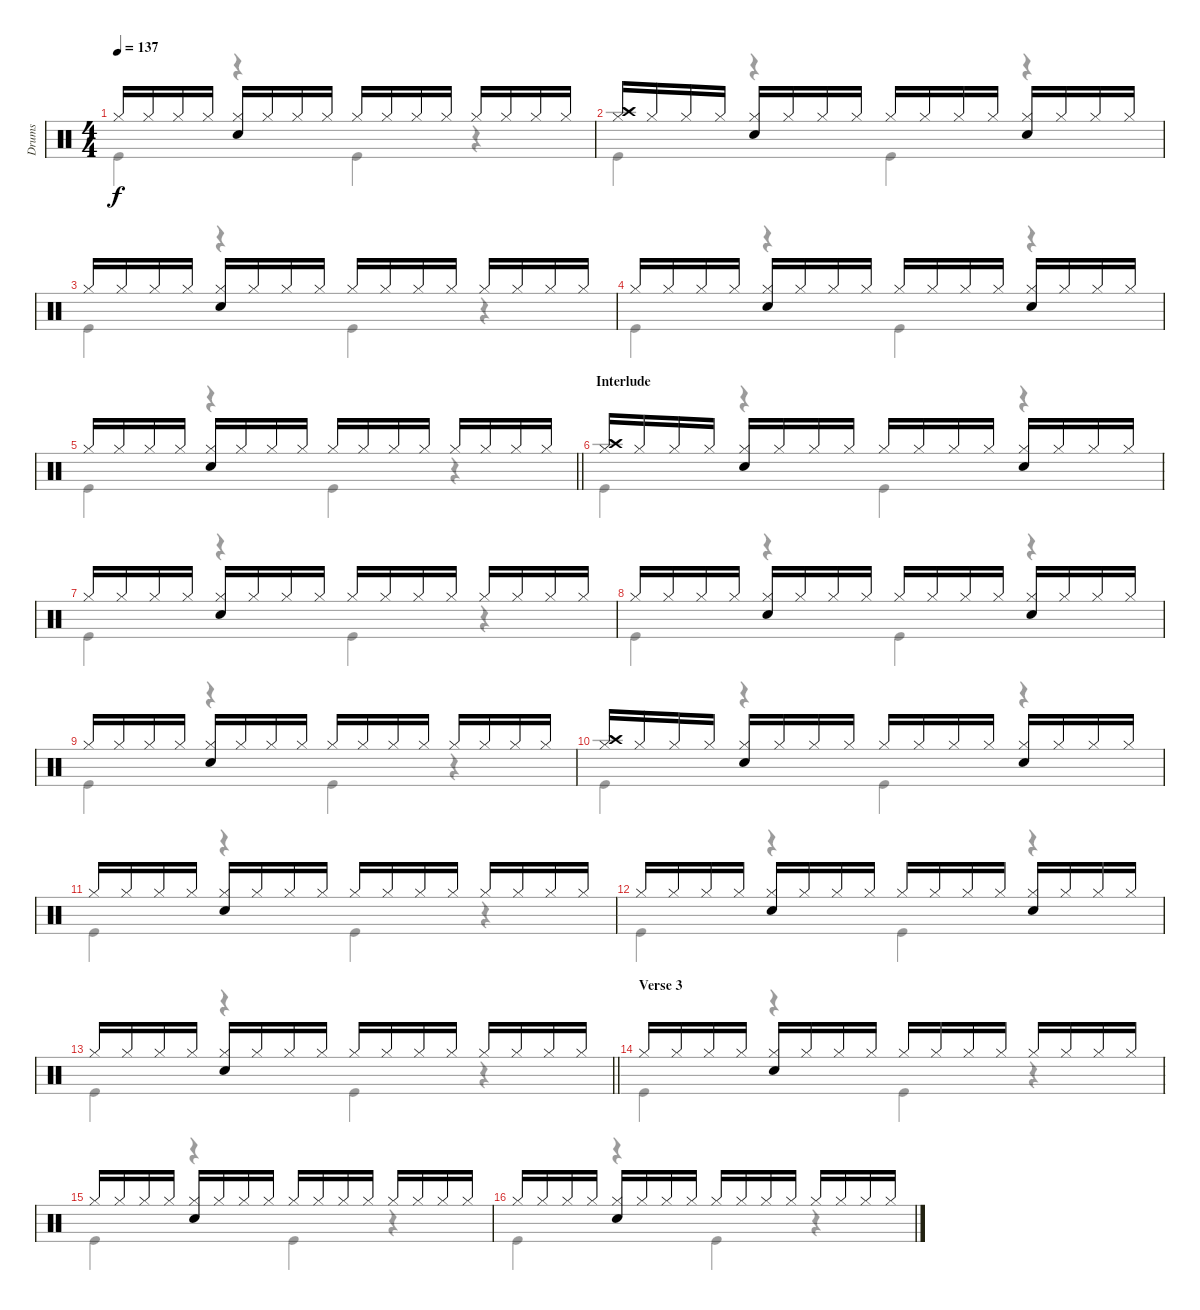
\track ("Drums" "Drums") {instrument percussion}
\staff {score}
\articulation defaults
\voice
\ts (4 4)
\tempo 137
\clef neutral
\ks c "Hi-Hat (closed)".16{dy f} "Hi-Hat (closed)".16 "Hi-Hat (closed)".16 "Hi-Hat (closed)".16
("Hi-Hat (closed)" "Snare (hit) 2").16 "Hi-Hat (closed)".16 "Hi-Hat (closed)".16 "Hi-Hat (closed)".16 "Hi-Hat (closed)".16 "Hi-Hat (closed)".16 "Hi-Hat (closed)".16 "Hi-Hat (closed)".16 "Hi-Hat (closed)".16 "Hi-Hat (closed)".16 "Hi-Hat (closed)".16 "Hi-Hat (closed)".16 |
("Hi-Hat (closed)" "Crash high (hit)").16 "Hi-Hat (closed)".16 "Hi-Hat (closed)".16 "Hi-Hat (closed)".16 ("Hi-Hat (closed)" "Snare (hit) 2").16 "Hi-Hat (closed)".16 "Hi-Hat (closed)".16 "Hi-Hat (closed)".16 "Hi-Hat (closed)".16 "Hi-Hat (closed)".16 "Hi-Hat (closed)".16 "Hi-Hat (closed)".16 ("Hi-Hat (closed)" "Hand Clap (hit)").16 "Hi-Hat (closed)".16 "Hi-Hat (closed)".16 "Hi-Hat (closed)".16 |
"Hi-Hat (closed)".16 "Hi-Hat (closed)".16 "Hi-Hat (closed)".16 "Hi-Hat (closed)".16 ("Hi-Hat (closed)" "Snare (hit) 2").16 "Hi-Hat (closed)".16 "Hi-Hat (closed)".16 "Hi-Hat (closed)".16 "Hi-Hat (closed)".16 "Hi-Hat (closed)".16 "Hi-Hat (closed)".16 "Hi-Hat (closed)".16 "Hi-Hat (closed)".16 "Hi-Hat (closed)".16 "Hi-Hat (closed)".16 "Hi-Hat (closed)".16 |
"Hi-Hat (closed)".16 "Hi-Hat (closed)".16 "Hi-Hat (closed)".16 "Hi-Hat (closed)".16 ("Hi-Hat (closed)" "Snare (hit) 2").16 "Hi-Hat (closed)".16 "Hi-Hat (closed)".16 "Hi-Hat (closed)".16 "Hi-Hat (closed)".16 "Hi-Hat (closed)".16 "Hi-Hat (closed)".16 "Hi-Hat (closed)".16 ("Hi-Hat (closed)" "Hand Clap (hit)").16 "Hi-Hat (closed)".16 "Hi-Hat (closed)".16 "Hi-Hat (closed)".16 |
\barLineRight lightlight "Hi-Hat (closed)".16 "Hi-Hat (closed)".16 "Hi-Hat (closed)".16 "Hi-Hat (closed)".16
("Hi-Hat (closed)" "Snare (hit) 2").16 "Hi-Hat (closed)".16 "Hi-Hat (closed)".16 "Hi-Hat (closed)".16 "Hi-Hat (closed)".16 "Hi-Hat (closed)".16 "Hi-Hat (closed)".16 "Hi-Hat (closed)".16 "Hi-Hat (closed)".16 "Hi-Hat (closed)".16 "Hi-Hat (closed)".16 "Hi-Hat (closed)".16 |
\section ("" "Interlude")
("Hi-Hat (closed)" "Crash high (hit)").16 "Hi-Hat (closed)".16 "Hi-Hat (closed)".16 "Hi-Hat (closed)".16 ("Hi-Hat (closed)" "Snare (hit) 2").16 "Hi-Hat (closed)".16 "Hi-Hat (closed)".16 "Hi-Hat (closed)".16 "Hi-Hat (closed)".16 "Hi-Hat (closed)".16 "Hi-Hat (closed)".16 "Hi-Hat (closed)".16 ("Hi-Hat (closed)" "Hand Clap (hit)").16 "Hi-Hat (closed)".16 "Hi-Hat (closed)".16 "Hi-Hat (closed)".16 |
"Hi-Hat (closed)".16 "Hi-Hat (closed)".16 "Hi-Hat (closed)".16 "Hi-Hat (closed)".16 ("Hi-Hat (closed)" "Snare (hit) 2").16 "Hi-Hat (closed)".16 "Hi-Hat (closed)".16 "Hi-Hat (closed)".16 "Hi-Hat (closed)".16 "Hi-Hat (closed)".16 "Hi-Hat (closed)".16 "Hi-Hat (closed)".16 "Hi-Hat (closed)".16 "Hi-Hat (closed)".16 "Hi-Hat (closed)".16 "Hi-Hat (closed)".16 |
"Hi-Hat (closed)".16 "Hi-Hat (closed)".16 "Hi-Hat (closed)".16 "Hi-Hat (closed)".16 ("Hi-Hat (closed)" "Snare (hit) 2").16 "Hi-Hat (closed)".16 "Hi-Hat (closed)".16 "Hi-Hat (closed)".16 "Hi-Hat (closed)".16 "Hi-Hat (closed)".16 "Hi-Hat (closed)".16 "Hi-Hat (closed)".16 ("Hi-Hat (closed)" "Hand Clap (hit)").16 "Hi-Hat (closed)".16 "Hi-Hat (closed)".16 "Hi-Hat (closed)".16 |
"Hi-Hat (closed)".16 "Hi-Hat (closed)".16 "Hi-Hat (closed)".16 "Hi-Hat (closed)".16 ("Hi-Hat (closed)" "Snare (hit) 2").16 "Hi-Hat (closed)".16 "Hi-Hat (closed)".16 "Hi-Hat (closed)".16 "Hi-Hat (closed)".16 "Hi-Hat (closed)".16 "Hi-Hat (closed)".16 "Hi-Hat (closed)".16 "Hi-Hat (closed)".16 "Hi-Hat (closed)".16 "Hi-Hat (closed)".16 "Hi-Hat (closed)".16 |
("Hi-Hat (closed)" "Crash high (hit)").16 "Hi-Hat (closed)".16 "Hi-Hat (closed)".16 "Hi-Hat (closed)".16 ("Hi-Hat (closed)" "Snare (hit) 2").16 "Hi-Hat (closed)".16 "Hi-Hat (closed)".16 "Hi-Hat (closed)".16 "Hi-Hat (closed)".16 "Hi-Hat (closed)".16 "Hi-Hat (closed)".16 "Hi-Hat (closed)".16 ("Hi-Hat (closed)" "Hand Clap (hit)").16 "Hi-Hat (closed)".16 "Hi-Hat (closed)".16 "Hi-Hat (closed)".16 |
"Hi-Hat (closed)".16 "Hi-Hat (closed)".16 "Hi-Hat (closed)".16 "Hi-Hat (closed)".16 ("Hi-Hat (closed)" "Snare (hit) 2").16 "Hi-Hat (closed)".16 "Hi-Hat (closed)".16 "Hi-Hat (closed)".16 "Hi-Hat (closed)".16 "Hi-Hat (closed)".16 "Hi-Hat (closed)".16 "Hi-Hat (closed)".16 "Hi-Hat (closed)".16 "Hi-Hat (closed)".16 "Hi-Hat (closed)".16 "Hi-Hat (closed)".16 |
"Hi-Hat (closed)".16 "Hi-Hat (closed)".16 "Hi-Hat (closed)".16 "Hi-Hat (closed)".16 ("Hi-Hat (closed)" "Snare (hit) 2").16 "Hi-Hat (closed)".16 "Hi-Hat (closed)".16 "Hi-Hat (closed)".16 "Hi-Hat (closed)".16 "Hi-Hat (closed)".16 "Hi-Hat (closed)".16 "Hi-Hat (closed)".16 ("Hi-Hat (closed)" "Hand Clap (hit)").16 "Hi-Hat (closed)".16 "Hi-Hat (closed)".16 "Hi-Hat (closed)".16 |
\barLineRight lightlight "Hi-Hat (closed)".16 "Hi-Hat (closed)".16 "Hi-Hat (closed)".16 "Hi-Hat (closed)".16
("Hi-Hat (closed)" "Snare (hit) 2").16 "Hi-Hat (closed)".16 "Hi-Hat (closed)".16 "Hi-Hat (closed)".16 "Hi-Hat (closed)".16 "Hi-Hat (closed)".16 "Hi-Hat (closed)".16 "Hi-Hat (closed)".16 "Hi-Hat (closed)".16 "Hi-Hat (closed)".16 "Hi-Hat (closed)".16 "Hi-Hat (closed)".16 |
\section ("" "Verse 3")
"Hi-Hat (closed)".16 "Hi-Hat (closed)".16 "Hi-Hat (closed)".16 "Hi-Hat (closed)".16 ("Hi-Hat (closed)" "Snare (hit) 2").16 "Hi-Hat (closed)".16 "Hi-Hat (closed)".16 "Hi-Hat (closed)".16 "Hi-Hat (closed)".16 "Hi-Hat (closed)".16 "Hi-Hat (closed)".16 "Hi-Hat (closed)".16 "Hi-Hat (closed)".16 "Hi-Hat (closed)".16 "Hi-Hat (closed)".16 "Hi-Hat (closed)".16 |
"Hi-Hat (closed)".16 "Hi-Hat (closed)".16 "Hi-Hat (closed)".16 "Hi-Hat (closed)".16 ("Hi-Hat (closed)" "Snare (hit) 2").16 "Hi-Hat (closed)".16 "Hi-Hat (closed)".16 "Hi-Hat (closed)".16 "Hi-Hat (closed)".16 "Hi-Hat (closed)".16 "Hi-Hat (closed)".16 "Hi-Hat (closed)".16 "Hi-Hat (closed)".16 "Hi-Hat (closed)".16 "Hi-Hat (closed)".16 "Hi-Hat (closed)".16 |
"Hi-Hat (closed)".16 "Hi-Hat (closed)".16 "Hi-Hat (closed)".16 "Hi-Hat (closed)".16 ("Hi-Hat (closed)" "Snare (hit) 2").16 "Hi-Hat (closed)".16 "Hi-Hat (closed)".16 "Hi-Hat (closed)".16 "Hi-Hat (closed)".16 "Hi-Hat (closed)".16 "Hi-Hat (closed)".16 "Hi-Hat (closed)".16 "Hi-Hat (closed)".16 "Hi-Hat (closed)".16 "Hi-Hat (closed)".16 "Hi-Hat (closed)".16
\voice
\clef neutral
\ottava regular
\simile none
\ks c "Kick (hit)".4{dy f}
r.4 "Kick (hit)".4 r.4 |
"Kick (hit)".4 r.4 "Kick (hit)".4 r.4 |
"Kick (hit)".4 r.4 "Kick (hit)".4 r.4 |
"Kick (hit)".4 r.4 "Kick (hit)".4 r.4 |
\barLineRight lightlight "Kick (hit)".4
r.4 "Kick (hit)".4 r.4 |
"Kick (hit)".4 r.4 "Kick (hit)".4 r.4 |
"Kick (hit)".4 r.4 "Kick (hit)".4 r.4 |
"Kick (hit)".4 r.4 "Kick (hit)".4 r.4 |
"Kick (hit)".4 r.4 "Kick (hit)".4 r.4 |
"Kick (hit)".4 r.4 "Kick (hit)".4 r.4 |
"Kick (hit)".4 r.4 "Kick (hit)".4 r.4 |
"Kick (hit)".4 r.4 "Kick (hit)".4 r.4 |
\barLineRight lightlight "Kick (hit)".4
r.4 "Kick (hit)".4 r.4 |
"Kick (hit)".4 r.4 "Kick (hit)".4 r.4 |
"Kick (hit)".4 r.4 "Kick (hit)".4 r.4 |
"Kick (hit)".4 r.4 "Kick (hit)".4 r.4
